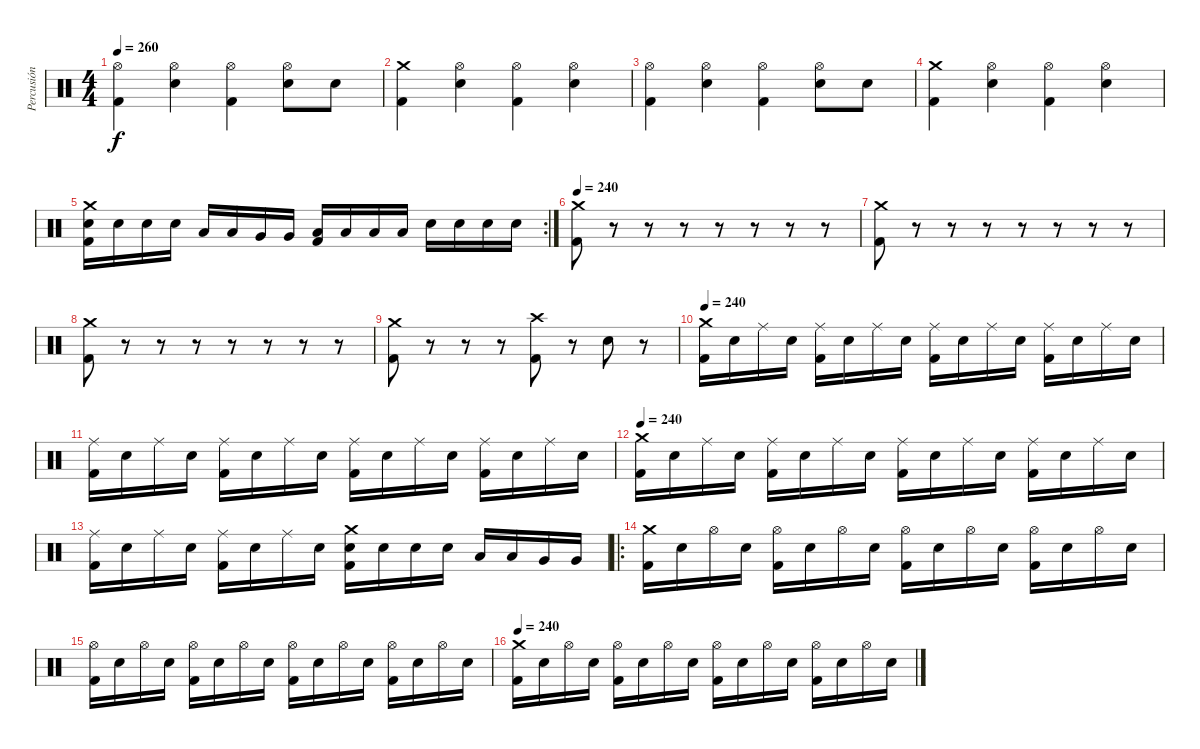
\track ("Percusión" "Percusión") {instrument percussion}
\staff {score}
\articulation defaults
\ts (4 4)
\tempo 260
\clef neutral
\ks c
("Hi-Hat (open)" "Kick (hit) 2").4{dy f} ("Hi-Hat (open)" "Electric Snare (hit)").4 ("Hi-Hat (open)" "Kick (hit) 2").4 ("Hi-Hat (open)" "Electric Snare (hit)").8 "Electric Snare (hit)".8 |
("Crash medium (hit)" "Kick (hit) 2").4 ("Hi-Hat (open)" "Electric Snare (hit)").4 ("Hi-Hat (open)" "Kick (hit) 2").4 ("Hi-Hat (open)" "Electric Snare (hit)").4 |
("Hi-Hat (open)" "Kick (hit) 2").4 ("Hi-Hat (open)" "Electric Snare (hit)").4 ("Hi-Hat (open)" "Kick (hit) 2").4 ("Hi-Hat (open)" "Electric Snare (hit)").8 "Electric Snare (hit)".8 |
("Crash medium (hit)" "Kick (hit) 2").4 ("Hi-Hat (open)" "Electric Snare (hit)").4 ("Hi-Hat (open)" "Kick (hit) 2").4 ("Hi-Hat (open)" "Electric Snare (hit)").4 |
\rc 2
("Crash medium (hit)" "Electric Snare (hit)" "Kick (hit) 2").16 "Electric Snare (hit)".16 "Electric Snare (hit)".16 "Electric Snare (hit)".16 "Low Tom (hit)".16 "Low Tom (hit)".16 "Very Low Tom (hit)".16 "Very Low Tom (hit)".16 ("Low Tom (hit)" "Kick (hit) 2").16 "Low Tom (hit)".16 "Low Tom (hit)".16 "Low Tom (hit)".16 "Electric Snare (hit)".16 "Electric Snare (hit)".16 "Electric Snare (hit)".16 "Electric Snare (hit)".16 |
\tempo 240
("Crash medium (hit)" "Kick (hit) 2").8 r.8 r.8 r.8 r.8 r.8 r.8 r.8 |
("Crash medium (hit)" "Kick (hit) 2").8 r.8 r.8 r.8 r.8 r.8 r.8 r.8 |
("Crash medium (hit)" "Kick (hit) 2").8 r.8 r.8 r.8 r.8 r.8 r.8 r.8 |
("Crash medium (hit)" "Kick (hit) 2").8 r.8 r.8 r.8 ("Crash high (hit)" "Kick (hit) 2").8 r.8 "Electric Snare (hit)".8 r.8 |
\tempo 240
("Crash medium (hit)" "Kick (hit) 2").16 "Electric Snare (hit)".16 "Ride (middle)".16 "Electric Snare (hit)".16 ("Ride (middle)" "Kick (hit) 2").16 "Electric Snare (hit)".16 "Ride (middle)".16 "Electric Snare (hit)".16 ("Ride (middle)" "Kick (hit) 2").16 "Electric Snare (hit)".16 "Ride (middle)".16 "Electric Snare (hit)".16 ("Ride (middle)" "Kick (hit) 2").16 "Electric Snare (hit)".16 "Ride (middle)".16 "Electric Snare (hit)".16 |
("Ride (middle)" "Kick (hit) 2").16 "Electric Snare (hit)".16 "Ride (middle)".16 "Electric Snare (hit)".16 ("Ride (middle)" "Kick (hit) 2").16 "Electric Snare (hit)".16 "Ride (middle)".16 "Electric Snare (hit)".16 ("Ride (middle)" "Kick (hit) 2").16 "Electric Snare (hit)".16 "Ride (middle)".16 "Electric Snare (hit)".16 ("Ride (middle)" "Kick (hit) 2").16 "Electric Snare (hit)".16 "Ride (middle)".16 "Electric Snare (hit)".16 |
\tempo 240
("Crash medium (hit)" "Kick (hit) 2").16 "Electric Snare (hit)".16 "Ride (middle)".16 "Electric Snare (hit)".16 ("Ride (middle)" "Kick (hit) 2").16 "Electric Snare (hit)".16 "Ride (middle)".16 "Electric Snare (hit)".16 ("Ride (middle)" "Kick (hit) 2").16 "Electric Snare (hit)".16 "Ride (middle)".16 "Electric Snare (hit)".16 ("Ride (middle)" "Kick (hit) 2").16 "Electric Snare (hit)".16 "Ride (middle)".16 "Electric Snare (hit)".16 |
("Ride (middle)" "Kick (hit) 2").16 "Electric Snare (hit)".16 "Ride (middle)".16 "Electric Snare (hit)".16 ("Ride (middle)" "Kick (hit) 2").16 "Electric Snare (hit)".16 "Ride (middle)".16 "Electric Snare (hit)".16 ("Crash medium (hit)" "Electric Snare (hit)" "Kick (hit) 2").16 "Electric Snare (hit)".16 "Electric Snare (hit)".16 "Electric Snare (hit)".16 "Low Tom (hit)".16 "Low Tom (hit)".16 "Very Low Tom (hit)".16 "Very Low Tom (hit)".16 |
\ro
("Crash medium (hit)" "Kick (hit) 2").16 "Electric Snare (hit)".16 "Hi-Hat (open)".16 "Electric Snare (hit)".16 ("Hi-Hat (open)" "Kick (hit) 2").16 "Electric Snare (hit)".16 "Hi-Hat (open)".16 "Electric Snare (hit)".16 ("Hi-Hat (open)" "Kick (hit) 2").16 "Electric Snare (hit)".16 "Hi-Hat (open)".16 "Electric Snare (hit)".16 ("Hi-Hat (open)" "Kick (hit) 2").16 "Electric Snare (hit)".16 "Hi-Hat (open)".16 "Electric Snare (hit)".16 |
("Hi-Hat (open)" "Kick (hit) 2").16 "Electric Snare (hit)".16 "Hi-Hat (open)".16 "Electric Snare (hit)".16 ("Hi-Hat (open)" "Kick (hit) 2").16 "Electric Snare (hit)".16 "Hi-Hat (open)".16 "Electric Snare (hit)".16 ("Hi-Hat (open)" "Kick (hit) 2").16 "Electric Snare (hit)".16 "Hi-Hat (open)".16 "Electric Snare (hit)".16 ("Hi-Hat (open)" "Kick (hit) 2").16 "Electric Snare (hit)".16 "Hi-Hat (open)".16 "Electric Snare (hit)".16 |
\tempo 240
("Crash medium (hit)" "Kick (hit) 2").16 "Electric Snare (hit)".16 "Hi-Hat (open)".16 "Electric Snare (hit)".16 ("Hi-Hat (open)" "Kick (hit) 2").16 "Electric Snare (hit)".16 "Hi-Hat (open)".16 "Electric Snare (hit)".16 ("Hi-Hat (open)" "Kick (hit) 2").16 "Electric Snare (hit)".16 "Hi-Hat (open)".16 "Electric Snare (hit)".16 ("Hi-Hat (open)" "Kick (hit) 2").16 "Electric Snare (hit)".16 "Hi-Hat (open)".16 "Electric Snare (hit)".16
